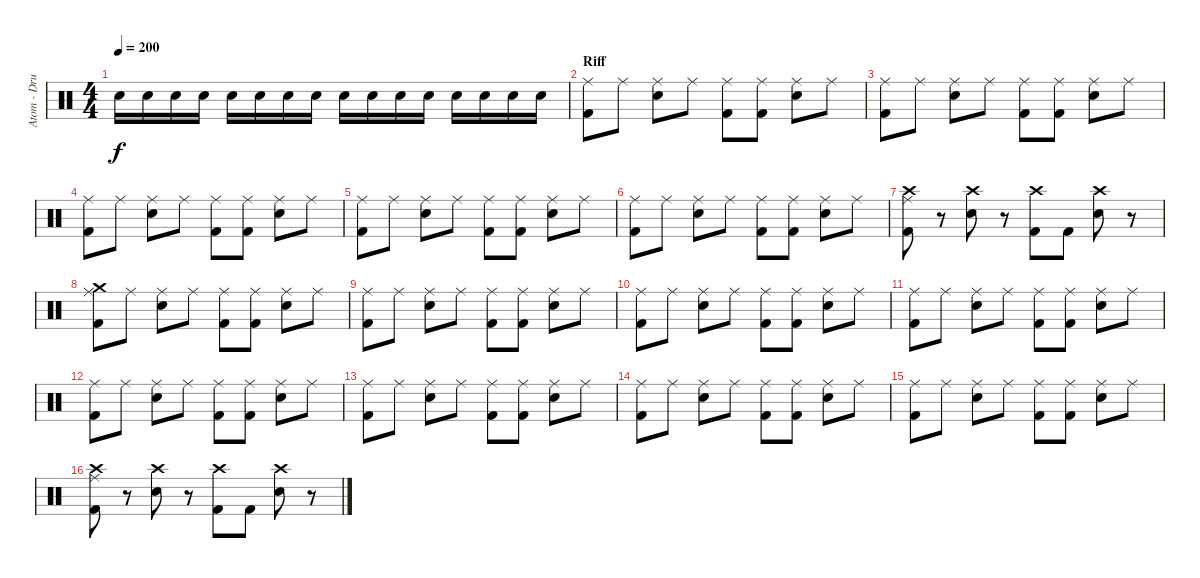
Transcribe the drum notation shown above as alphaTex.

\track ("Atom - Drums" "Atom - Dru") {instrument percussion}
\staff {score}
\articulation defaults
\ts (4 4)
\tempo 200
\clef neutral
\ks c "Electric Snare (hit)".16{dy f volume 14} "Electric Snare (hit)".16 "Electric Snare (hit)".16 "Electric Snare (hit)".16 "Electric Snare (hit)".16 "Electric Snare (hit)".16 "Electric Snare (hit)".16 "Electric Snare (hit)".16 "Electric Snare (hit)".16 "Electric Snare (hit)".16 "Electric Snare (hit)".16 "Electric Snare (hit)".16 "Electric Snare (hit)".16 "Electric Snare (hit)".16 "Electric Snare (hit)".16 "Electric Snare (hit)".16
|
\section ("" "Riff")
("Ride (middle)" "Kick (hit) 2").8 "Ride (middle)".8 ("Ride (middle)" "Electric Snare (hit)").8 "Ride (middle)".8 ("Ride (middle)" "Kick (hit) 2").8 ("Ride (middle)" "Kick (hit) 2").8 ("Ride (middle)" "Electric Snare (hit)").8 "Ride (middle)".8 |
("Ride (middle)" "Kick (hit) 2").8 "Ride (middle)".8 ("Ride (middle)" "Electric Snare (hit)").8 "Ride (middle)".8 ("Ride (middle)" "Kick (hit) 2").8 ("Ride (middle)" "Kick (hit) 2").8 ("Ride (middle)" "Electric Snare (hit)").8 "Ride (middle)".8 |
("Ride (middle)" "Kick (hit) 2").8 "Ride (middle)".8 ("Ride (middle)" "Electric Snare (hit)").8 "Ride (middle)".8 ("Ride (middle)" "Kick (hit) 2").8 ("Ride (middle)" "Kick (hit) 2").8 ("Ride (middle)" "Electric Snare (hit)").8 "Ride (middle)".8 |
("Ride (middle)" "Kick (hit) 2").8 "Ride (middle)".8 ("Ride (middle)" "Electric Snare (hit)").8 "Ride (middle)".8 ("Ride (middle)" "Kick (hit) 2").8 ("Ride (middle)" "Kick (hit) 2").8 ("Ride (middle)" "Electric Snare (hit)").8 "Ride (middle)".8 |
("Ride (middle)" "Kick (hit) 2").8 "Ride (middle)".8 ("Ride (middle)" "Electric Snare (hit)").8 "Ride (middle)".8 ("Ride (middle)" "Kick (hit) 2").8 ("Ride (middle)" "Kick (hit) 2").8 ("Ride (middle)" "Electric Snare (hit)").8 "Ride (middle)".8 |
("Crash high (hit)" "Ride (middle)" "Kick (hit) 2").8 r.8 ("Crash high (hit)" "Electric Snare (hit)").8 r.8 ("Crash high (hit)" "Kick (hit) 2").8 "Kick (hit) 2".8 ("Crash high (hit)" "Electric Snare (hit)").8 r.8 |
("Crash medium (hit)" "Ride (middle)" "Kick (hit) 2").8 "Ride (middle)".8 ("Ride (middle)" "Electric Snare (hit)").8 "Ride (middle)".8 ("Ride (middle)" "Kick (hit) 2").8 ("Ride (middle)" "Kick (hit) 2").8 ("Ride (middle)" "Electric Snare (hit)").8 "Ride (middle)".8 |
("Ride (middle)" "Kick (hit) 2").8 "Ride (middle)".8 ("Ride (middle)" "Electric Snare (hit)").8 "Ride (middle)".8 ("Ride (middle)" "Kick (hit) 2").8 ("Ride (middle)" "Kick (hit) 2").8 ("Ride (middle)" "Electric Snare (hit)").8 "Ride (middle)".8 |
("Ride (middle)" "Kick (hit) 2").8 "Ride (middle)".8 ("Ride (middle)" "Electric Snare (hit)").8 "Ride (middle)".8 ("Ride (middle)" "Kick (hit) 2").8 ("Ride (middle)" "Kick (hit) 2").8 ("Ride (middle)" "Electric Snare (hit)").8 "Ride (middle)".8 |
("Ride (middle)" "Kick (hit) 2").8 "Ride (middle)".8 ("Ride (middle)" "Electric Snare (hit)").8 "Ride (middle)".8 ("Ride (middle)" "Kick (hit) 2").8 ("Ride (middle)" "Kick (hit) 2").8 ("Ride (middle)" "Electric Snare (hit)").8 "Ride (middle)".8 |
("Ride (middle)" "Kick (hit) 2").8 "Ride (middle)".8 ("Ride (middle)" "Electric Snare (hit)").8 "Ride (middle)".8 ("Ride (middle)" "Kick (hit) 2").8 ("Ride (middle)" "Kick (hit) 2").8 ("Ride (middle)" "Electric Snare (hit)").8 "Ride (middle)".8 |
("Ride (middle)" "Kick (hit) 2").8 "Ride (middle)".8 ("Ride (middle)" "Electric Snare (hit)").8 "Ride (middle)".8 ("Ride (middle)" "Kick (hit) 2").8 ("Ride (middle)" "Kick (hit) 2").8 ("Ride (middle)" "Electric Snare (hit)").8 "Ride (middle)".8 |
("Ride (middle)" "Kick (hit) 2").8 "Ride (middle)".8 ("Ride (middle)" "Electric Snare (hit)").8 "Ride (middle)".8 ("Ride (middle)" "Kick (hit) 2").8 ("Ride (middle)" "Kick (hit) 2").8 ("Ride (middle)" "Electric Snare (hit)").8 "Ride (middle)".8 |
("Ride (middle)" "Kick (hit) 2").8 "Ride (middle)".8 ("Ride (middle)" "Electric Snare (hit)").8 "Ride (middle)".8 ("Ride (middle)" "Kick (hit) 2").8 ("Ride (middle)" "Kick (hit) 2").8 ("Ride (middle)" "Electric Snare (hit)").8 "Ride (middle)".8 |
("Crash high (hit)" "Ride (middle)" "Kick (hit) 2").8 r.8 ("Crash high (hit)" "Electric Snare (hit)").8 r.8 ("Crash high (hit)" "Kick (hit) 2").8 "Kick (hit) 2".8 ("Crash high (hit)" "Electric Snare (hit)").8 r.8
